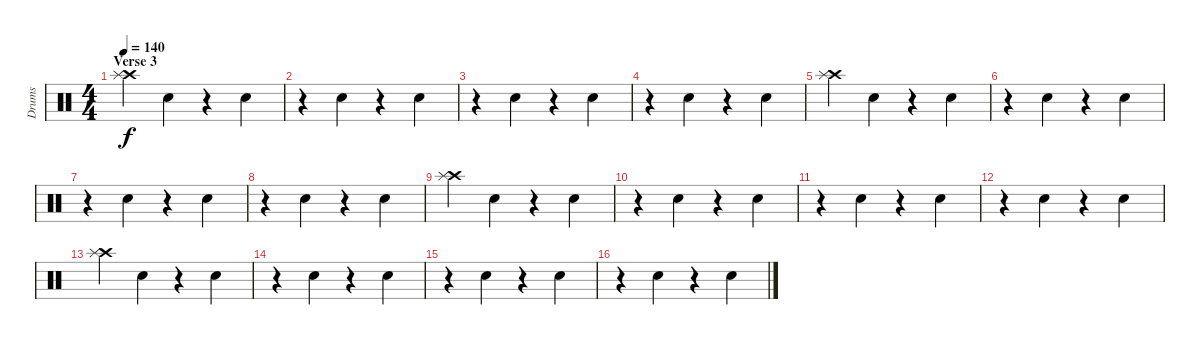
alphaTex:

\track ("Drums" "Drums") {instrument percussion}
\staff {score}
\articulation defaults
\ts (4 4)
\section ("" "Verse 3")
\tempo 140
\clef neutral
\ks c
("Crash high (hit)" "Splash (hit)").4{dy f} "Snare (hit) 2".4 r.4 "Snare (hit) 2".4 |
r.4 "Snare (hit) 2".4 r.4 "Snare (hit) 2".4 |
r.4 "Snare (hit) 2".4 r.4 "Snare (hit) 2".4 |
r.4 "Snare (hit) 2".4 r.4 "Snare (hit) 2".4 |
("Crash high (hit)" "Splash (hit)").4 "Snare (hit) 2".4 r.4 "Snare (hit) 2".4 |
r.4 "Snare (hit) 2".4 r.4 "Snare (hit) 2".4 |
r.4 "Snare (hit) 2".4 r.4 "Snare (hit) 2".4 |
r.4 "Snare (hit) 2".4 r.4 "Snare (hit) 2".4 |
("Crash high (hit)" "Splash (hit)").4 "Snare (hit) 2".4 r.4 "Snare (hit) 2".4 |
r.4 "Snare (hit) 2".4 r.4 "Snare (hit) 2".4 |
r.4 "Snare (hit) 2".4 r.4 "Snare (hit) 2".4 |
r.4 "Snare (hit) 2".4 r.4 "Snare (hit) 2".4 |
("Crash high (hit)" "Splash (hit)").4 "Snare (hit) 2".4 r.4 "Snare (hit) 2".4 |
r.4 "Snare (hit) 2".4 r.4 "Snare (hit) 2".4 |
r.4 "Snare (hit) 2".4 r.4 "Snare (hit) 2".4 |
r.4 "Snare (hit) 2".4 r.4 "Snare (hit) 2".4
